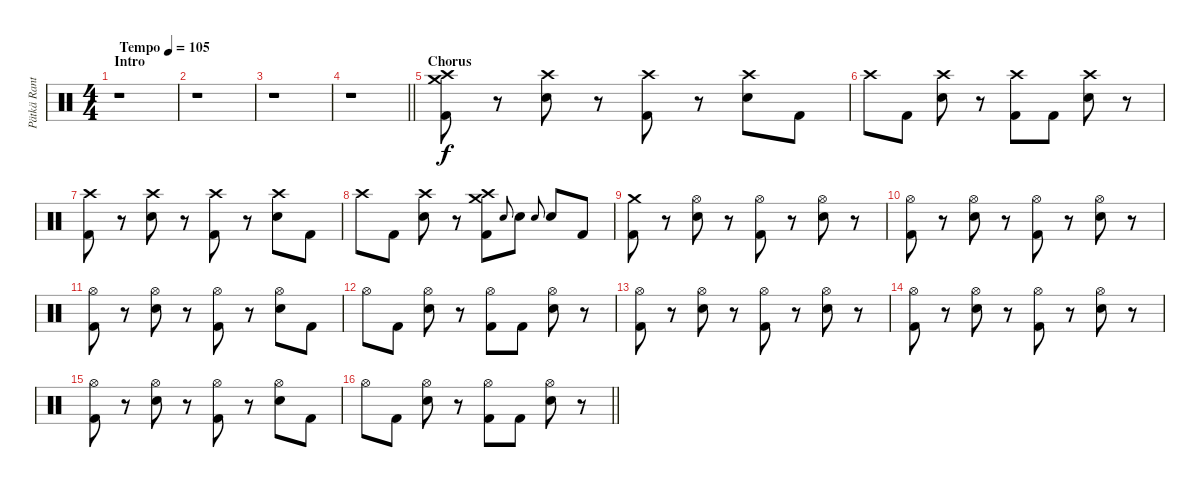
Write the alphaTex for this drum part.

\track ("Pätkä Rantala (Drums)" "Pätkä Rant") {instrument percussion}
\staff {score}
\articulation defaults
\ts (4 4)
\section ("" "Intro")
\tempo (105 "Tempo")
\clef neutral
\ks c
r.1{dy f} |
r.1 |
r.1 |
\barLineRight lightlight
r.1 |
\section ("" "Chorus")
("Crash medium (hit)" "Crash high (hit)" "Kick (hit) 2").8 r.8 ("Crash high (hit)" "Snare (hit) 2").8 r.8 ("Crash high (hit)" "Kick (hit) 2").8 r.8 ("Crash high (hit)" "Snare (hit) 2").8 "Kick (hit) 2".8 |
"Crash high (hit)".8 "Kick (hit) 2".8 ("Crash high (hit)" "Snare (hit) 2").8 r.8 ("Crash high (hit)" "Kick (hit) 2").8 "Kick (hit) 2".8 ("Crash high (hit)" "Snare (hit) 2").8 r.8 |
("Crash high (hit)" "Kick (hit) 2").8 r.8 ("Crash high (hit)" "Snare (hit) 2").8 r.8 ("Crash high (hit)" "Kick (hit) 2").8 r.8 ("Crash high (hit)" "Snare (hit) 2").8 "Kick (hit) 2".8 |
"Crash high (hit)".8 "Kick (hit) 2".8 ("Crash high (hit)" "Snare (hit) 2").8 r.8 ("Crash medium (hit)" "Crash high (hit)" "Kick (hit) 2").8 "Snare (hit) 2".8{gr onbeat} "Snare (hit) 2".8 "Snare (hit) 2".8{gr onbeat} "Snare (hit) 2".8 "Kick (hit) 2".8 |
("Crash medium (hit)" "Kick (hit) 2").8 r.8 ("Hi-Hat (open)" "Snare (hit) 2").8 r.8 ("Hi-Hat (open)" "Kick (hit) 2").8 r.8 ("Hi-Hat (open)" "Snare (hit) 2").8 r.8 |
("Hi-Hat (open)" "Kick (hit) 2").8 r.8 ("Hi-Hat (open)" "Snare (hit) 2").8 r.8 ("Hi-Hat (open)" "Kick (hit) 2").8 r.8 ("Hi-Hat (open)" "Snare (hit) 2").8 r.8 |
("Hi-Hat (open)" "Kick (hit) 2").8 r.8 ("Hi-Hat (open)" "Snare (hit) 2").8 r.8 ("Hi-Hat (open)" "Kick (hit) 2").8 r.8 ("Hi-Hat (open)" "Snare (hit) 2").8 "Kick (hit) 2".8 |
"Hi-Hat (open)".8 "Kick (hit) 2".8 ("Hi-Hat (open)" "Snare (hit) 2").8 r.8 ("Hi-Hat (open)" "Kick (hit) 2").8 "Kick (hit) 2".8 ("Hi-Hat (open)" "Snare (hit) 2").8 r.8 |
("Hi-Hat (open)" "Kick (hit) 2").8 r.8 ("Hi-Hat (open)" "Snare (hit) 2").8 r.8 ("Hi-Hat (open)" "Kick (hit) 2").8 r.8 ("Hi-Hat (open)" "Snare (hit) 2").8 r.8 |
("Hi-Hat (open)" "Kick (hit) 2").8 r.8 ("Hi-Hat (open)" "Snare (hit) 2").8 r.8 ("Hi-Hat (open)" "Kick (hit) 2").8 r.8 ("Hi-Hat (open)" "Snare (hit) 2").8 r.8 |
("Hi-Hat (open)" "Kick (hit) 2").8 r.8 ("Hi-Hat (open)" "Snare (hit) 2").8 r.8 ("Hi-Hat (open)" "Kick (hit) 2").8 r.8 ("Hi-Hat (open)" "Snare (hit) 2").8 "Kick (hit) 2".8 |
\barLineRight lightlight "Hi-Hat (open)".8 "Kick (hit) 2".8
("Hi-Hat (open)" "Snare (hit) 2").8 r.8 ("Hi-Hat (open)" "Kick (hit) 2").8 "Kick (hit) 2".8 ("Hi-Hat (open)" "Snare (hit) 2").8 r.8
